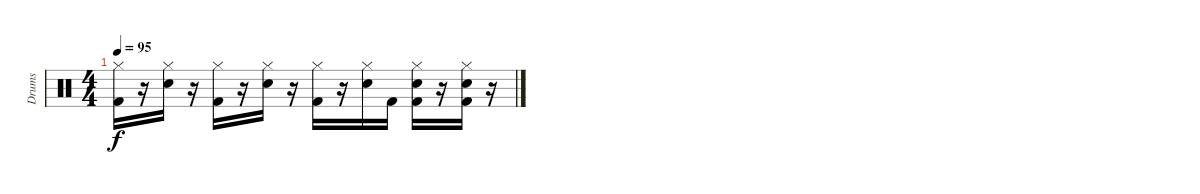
\track ("Drums" "Drums") {instrument percussion}
\staff {score}
\articulation defaults
\ts (4 4)
\tempo 95
\clef neutral
\ks c
("Hi-Hat (closed)" "Kick (hit) 2").16{dy f} r.16 ("Hi-Hat (closed)" "Snare (hit) 2").16 r.16 ("Hi-Hat (closed)" "Kick (hit) 2").16 r.16 ("Hi-Hat (closed)" "Snare (hit) 2").16 r.16 ("Hi-Hat (closed)" "Kick (hit) 2").16 r.16 ("Hi-Hat (closed)" "Snare (hit) 2").16 "Kick (hit) 2".16 ("Hi-Hat (closed)" "Snare (hit) 2" "Kick (hit) 2").16 r.16 ("Hi-Hat (closed)" "Snare (hit) 2" "Kick (hit) 2").16 r.16
